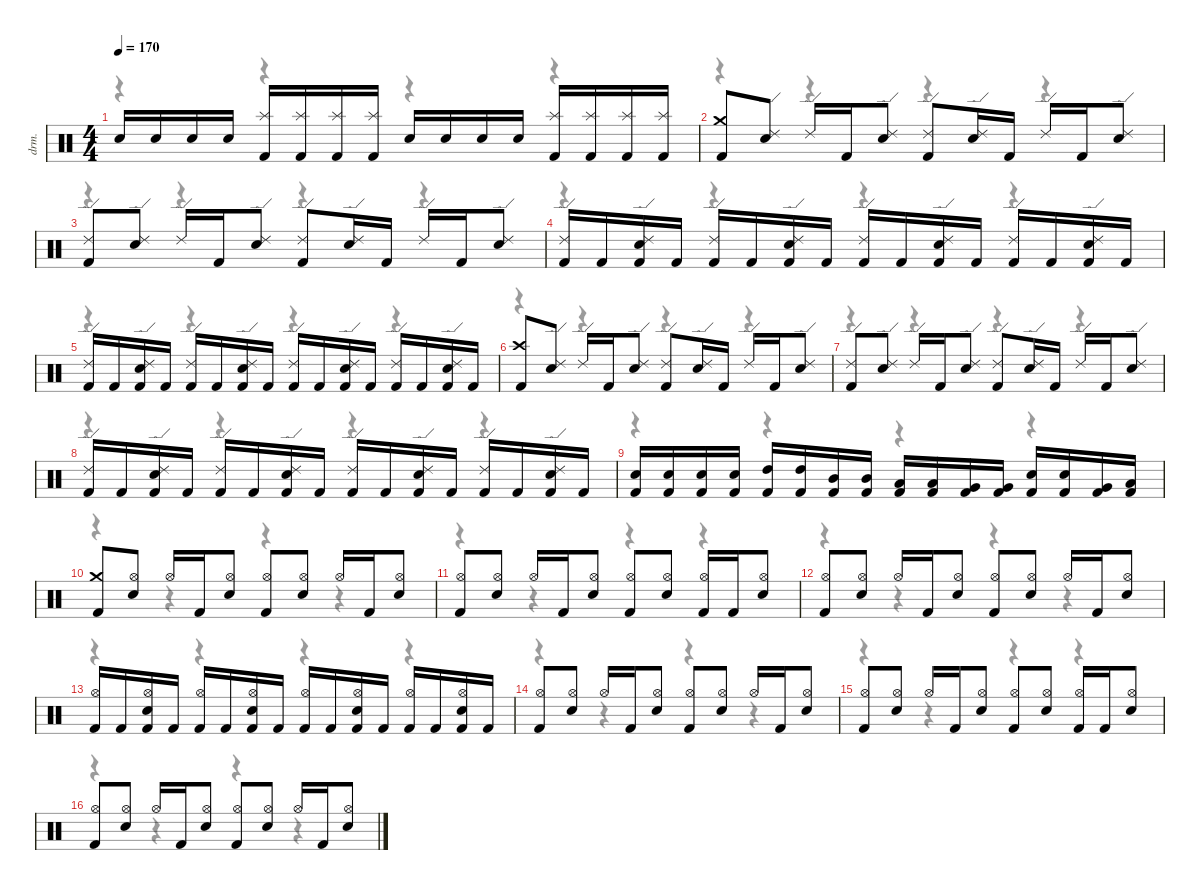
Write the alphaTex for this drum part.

\defaultSystemsLayout 4
\hideDynamics
\bracketExtendMode nobrackets
\otherSystemsTrackNameOrientation horizontal
\track ("David Mackintosh (Drums)" "drm.") {instrument percussion}
\staff {score}
\articulation defaults
\voice
\ts (4 4)
\tempo 170
\clef neutral
\ks c "Snare (hit) 2".16{dy f} "Snare (hit) 2".16 "Snare (hit) 2".16 "Snare (hit) 2".16
("Kick (hit) 2" "Splash (hit)").16 ("Kick (hit) 2" "Splash (hit)").16 ("Kick (hit) 2" "Splash (hit)").16 ("Kick (hit) 2" "Splash (hit)").16 "Snare (hit) 2".16 "Snare (hit) 2".16 "Snare (hit) 2".16 "Snare (hit) 2".16 ("Kick (hit) 2" "Splash (hit)").16 ("Kick (hit) 2" "Splash (hit)").16 ("Kick (hit) 2" "Splash (hit)").16 ("Kick (hit) 2" "Splash (hit)").16 |
("Kick (hit) 2" "Crash medium (hit)").8 ("Snare (hit) 2" "Ride (edge) 2").8 "Ride (edge) 2".16 "Kick (hit) 2".16 ("Snare (hit) 2" "Ride (edge) 2").8 ("Kick (hit) 2" "Ride (edge) 2").8 ("Snare (hit) 2" "Ride (edge) 2").16 "Kick (hit) 2".16 "Ride (edge) 2".16 "Kick (hit) 2".16 ("Snare (hit) 2" "Ride (edge) 2").8 |
("Kick (hit) 2" "Ride (edge) 2").8 ("Snare (hit) 2" "Ride (edge) 2").8 "Ride (edge) 2".16 "Kick (hit) 2".16 ("Snare (hit) 2" "Ride (edge) 2").8 ("Kick (hit) 2" "Ride (edge) 2").8 ("Snare (hit) 2" "Ride (edge) 2").16 "Kick (hit) 2".16 "Ride (edge) 2".16 "Kick (hit) 2".16 ("Snare (hit) 2" "Ride (edge) 2").8 |
("Kick (hit) 2" "Ride (edge) 2").16 "Kick (hit) 2".16 ("Kick (hit) 2" "Snare (hit) 2" "Ride (edge) 2").16 "Kick (hit) 2".16 ("Kick (hit) 2" "Ride (edge) 2").16 "Kick (hit) 2".16 ("Kick (hit) 2" "Snare (hit) 2" "Ride (edge) 2").16 "Kick (hit) 2".16 ("Kick (hit) 2" "Ride (edge) 2").16 "Kick (hit) 2".16 ("Kick (hit) 2" "Snare (hit) 2" "Ride (edge) 2").16 "Kick (hit) 2".16 ("Kick (hit) 2" "Ride (edge) 2").16 "Kick (hit) 2".16 ("Kick (hit) 2" "Snare (hit) 2" "Ride (edge) 2").16 "Kick (hit) 2".16 |
("Kick (hit) 2" "Ride (edge) 2").16 "Kick (hit) 2".16 ("Kick (hit) 2" "Snare (hit) 2" "Ride (edge) 2").16 "Kick (hit) 2".16 ("Kick (hit) 2" "Ride (edge) 2").16 "Kick (hit) 2".16 ("Kick (hit) 2" "Snare (hit) 2" "Ride (edge) 2").16 "Kick (hit) 2".16 ("Kick (hit) 2" "Ride (edge) 2").16 "Kick (hit) 2".16 ("Kick (hit) 2" "Snare (hit) 2" "Ride (edge) 2").16 "Kick (hit) 2".16 ("Kick (hit) 2" "Ride (edge) 2").16 "Kick (hit) 2".16 ("Kick (hit) 2" "Snare (hit) 2" "Ride (edge) 2").16 "Kick (hit) 2".16 |
("Kick (hit) 2" "Crash high (hit)").8 ("Snare (hit) 2" "Ride (edge) 2").8 "Ride (edge) 2".16 "Kick (hit) 2".16 ("Snare (hit) 2" "Ride (edge) 2").8 ("Kick (hit) 2" "Ride (edge) 2").8 ("Snare (hit) 2" "Ride (edge) 2").16 "Kick (hit) 2".16 "Ride (edge) 2".16 "Kick (hit) 2".16 ("Snare (hit) 2" "Ride (edge) 2").8 |
("Kick (hit) 2" "Ride (edge) 2").8 ("Snare (hit) 2" "Ride (edge) 2").8 "Ride (edge) 2".16 "Kick (hit) 2".16 ("Snare (hit) 2" "Ride (edge) 2").8 ("Kick (hit) 2" "Ride (edge) 2").8 ("Snare (hit) 2" "Ride (edge) 2").16 "Kick (hit) 2".16 "Ride (edge) 2".16 "Kick (hit) 2".16 ("Snare (hit) 2" "Ride (edge) 2").8 |
("Kick (hit) 2" "Ride (edge) 2").16 "Kick (hit) 2".16 ("Kick (hit) 2" "Snare (hit) 2" "Ride (edge) 2").16 "Kick (hit) 2".16 ("Kick (hit) 2" "Ride (edge) 2").16 "Kick (hit) 2".16 ("Kick (hit) 2" "Snare (hit) 2" "Ride (edge) 2").16 "Kick (hit) 2".16 ("Kick (hit) 2" "Ride (edge) 2").16 "Kick (hit) 2".16 ("Kick (hit) 2" "Snare (hit) 2" "Ride (edge) 2").16 "Kick (hit) 2".16 ("Kick (hit) 2" "Ride (edge) 2").16 "Kick (hit) 2".16 ("Kick (hit) 2" "Snare (hit) 2" "Ride (edge) 2").16 "Kick (hit) 2".16 |
("Kick (hit) 2" "Snare (hit) 2").16 ("Kick (hit) 2" "Snare (hit) 2").16 ("Kick (hit) 2" "Snare (hit) 2").16 ("Kick (hit) 2" "Snare (hit) 2").16 ("Kick (hit) 2" "High Tom (hit)").16 ("Kick (hit) 2" "High Tom (hit)").16 ("Kick (hit) 2" "Mid Tom (hit)").16 ("Kick (hit) 2" "Mid Tom (hit)").16 ("Kick (hit) 2" "Low Tom (hit)").16 ("Kick (hit) 2" "Low Tom (hit)").16 ("Kick (hit) 2" "Very Low Tom (hit)").16 ("Kick (hit) 2" "Very Low Tom (hit)").16 ("Kick (hit) 2" "Snare (hit) 2").16 ("Kick (hit) 2" "Snare (hit) 2").16 ("Kick (hit) 2" "Very Low Tom (hit)").16 ("Kick (hit) 2" "Low Floor Tom (hit)").16 |
("Kick (hit) 2" "Crash medium (hit)").8 ("Snare (hit) 2" "Hi-Hat (open)").8 "Hi-Hat (open)".16 "Kick (hit) 2".16 ("Snare (hit) 2" "Hi-Hat (open)").8 ("Kick (hit) 2" "Hi-Hat (open)").8 ("Snare (hit) 2" "Hi-Hat (open)").8 "Hi-Hat (open)".16 "Kick (hit) 2".16 ("Snare (hit) 2" "Hi-Hat (open)").8 |
("Kick (hit) 2" "Hi-Hat (open)").8 ("Snare (hit) 2" "Hi-Hat (open)").8 "Hi-Hat (open)".16 "Kick (hit) 2".16 ("Snare (hit) 2" "Hi-Hat (open)").8 ("Kick (hit) 2" "Hi-Hat (open)").8 ("Snare (hit) 2" "Hi-Hat (open)").8 ("Kick (hit) 2" "Hi-Hat (open)").16 "Kick (hit) 2".16 ("Snare (hit) 2" "Hi-Hat (open)").8 |
("Kick (hit) 2" "Hi-Hat (open)").8 ("Snare (hit) 2" "Hi-Hat (open)").8 "Hi-Hat (open)".16 "Kick (hit) 2".16 ("Snare (hit) 2" "Hi-Hat (open)").8 ("Kick (hit) 2" "Hi-Hat (open)").8 ("Snare (hit) 2" "Hi-Hat (open)").8 "Hi-Hat (open)".16 "Kick (hit) 2".16 ("Snare (hit) 2" "Hi-Hat (open)").8 |
("Kick (hit) 2" "Hi-Hat (open)").16 "Kick (hit) 2".16 ("Kick (hit) 2" "Snare (hit) 2" "Hi-Hat (open)").16 "Kick (hit) 2".16 ("Kick (hit) 2" "Hi-Hat (open)").16 "Kick (hit) 2".16 ("Kick (hit) 2" "Snare (hit) 2" "Hi-Hat (open)").16 "Kick (hit) 2".16 ("Kick (hit) 2" "Hi-Hat (open)").16 "Kick (hit) 2".16 ("Kick (hit) 2" "Snare (hit) 2" "Hi-Hat (open)").16 "Kick (hit) 2".16 ("Kick (hit) 2" "Hi-Hat (open)").16 "Kick (hit) 2".16 ("Kick (hit) 2" "Snare (hit) 2" "Hi-Hat (open)").16 "Kick (hit) 2".16 |
("Kick (hit) 2" "Hi-Hat (open)").8 ("Snare (hit) 2" "Hi-Hat (open)").8 "Hi-Hat (open)".16 "Kick (hit) 2".16 ("Snare (hit) 2" "Hi-Hat (open)").8 ("Kick (hit) 2" "Hi-Hat (open)").8 ("Snare (hit) 2" "Hi-Hat (open)").8 "Hi-Hat (open)".16 "Kick (hit) 2".16 ("Snare (hit) 2" "Hi-Hat (open)").8 |
("Kick (hit) 2" "Hi-Hat (open)").8 ("Snare (hit) 2" "Hi-Hat (open)").8 "Hi-Hat (open)".16 "Kick (hit) 2".16 ("Snare (hit) 2" "Hi-Hat (open)").8 ("Kick (hit) 2" "Hi-Hat (open)").8 ("Snare (hit) 2" "Hi-Hat (open)").8 ("Kick (hit) 2" "Hi-Hat (open)").16 "Kick (hit) 2".16 ("Snare (hit) 2" "Hi-Hat (open)").8 |
("Kick (hit) 2" "Hi-Hat (open)").8 ("Snare (hit) 2" "Hi-Hat (open)").8 "Hi-Hat (open)".16 "Kick (hit) 2".16 ("Snare (hit) 2" "Hi-Hat (open)").8 ("Kick (hit) 2" "Hi-Hat (open)").8 ("Snare (hit) 2" "Hi-Hat (open)").8 "Hi-Hat (open)".16 "Kick (hit) 2".16 ("Snare (hit) 2" "Hi-Hat (open)").8
\voice
\clef neutral
\ottava regular
\simile none
\ks c
r.4{dy mf} r.4 r.4 r.4 |
r.4 r.4 r.4 r.4 |
r.4 r.4 r.4 r.4 |
r.4 r.4 r.4 r.4 |
r.4 r.4 r.4 r.4 |
r.4 r.4 r.4 r.4 |
r.4 r.4 r.4 r.4 |
r.4 r.4 r.4 r.4 |
r.4 r.4 r.4 r.4 |
r.4 r.4 r.4 r.4 |
r.4 r.4 r.4 r.4 |
r.4 r.4 r.4 r.4 |
r.4 r.4 r.4 r.4 |
r.4 r.4 r.4 r.4 |
r.4 r.4 r.4 r.4 |
r.4 r.4 r.4 r.4
